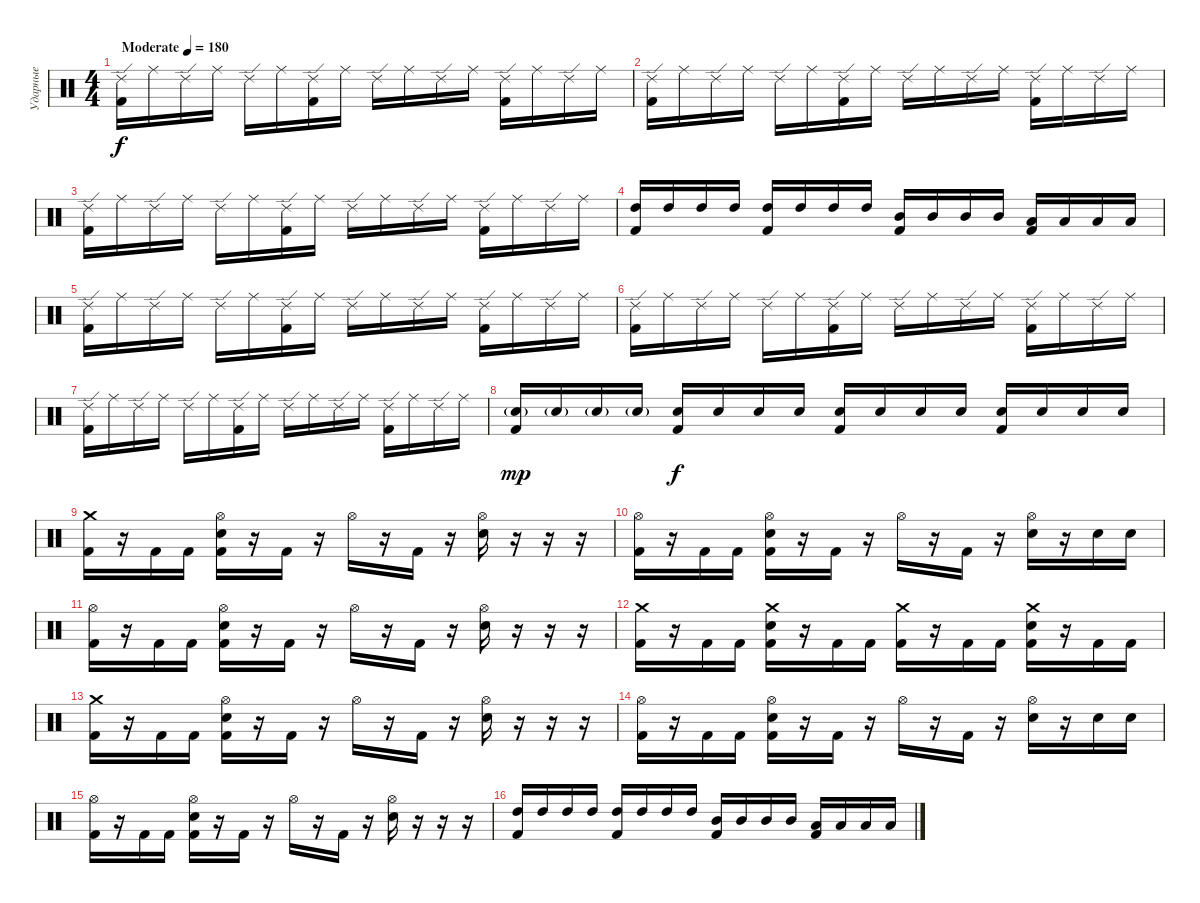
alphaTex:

\track ("Ударные" "Ударные") {instrument percussion}
\staff {score}
\articulation defaults
\ts (4 4)
\tempo (180 "Moderate")
\clef neutral
\ks c
("Ride (edge) 2" "Kick (hit) 2").16{dy f} "Ride (middle)".16 "Ride (edge) 2".16 "Ride (middle)".16 "Ride (edge) 2".16 "Ride (middle)".16 ("Ride (edge) 2" "Kick (hit) 2").16 "Ride (middle)".16 "Ride (edge) 2".16 "Ride (middle)".16 "Ride (edge) 2".16 "Ride (middle)".16 ("Ride (edge) 2" "Kick (hit) 2").16 "Ride (middle)".16 "Ride (edge) 2".16 "Ride (middle)".16 |
("Ride (edge) 2" "Kick (hit) 2").16 "Ride (middle)".16 "Ride (edge) 2".16 "Ride (middle)".16 "Ride (edge) 2".16 "Ride (middle)".16 ("Ride (edge) 2" "Kick (hit) 2").16 "Ride (middle)".16 "Ride (edge) 2".16 "Ride (middle)".16 "Ride (edge) 2".16 "Ride (middle)".16 ("Ride (edge) 2" "Kick (hit) 2").16 "Ride (middle)".16 "Ride (edge) 2".16 "Ride (middle)".16 |
("Ride (edge) 2" "Kick (hit) 2").16 "Ride (middle)".16 "Ride (edge) 2".16 "Ride (middle)".16 "Ride (edge) 2".16 "Ride (middle)".16 ("Ride (edge) 2" "Kick (hit) 2").16 "Ride (middle)".16 "Ride (edge) 2".16 "Ride (middle)".16 "Ride (edge) 2".16 "Ride (middle)".16 ("Ride (edge) 2" "Kick (hit) 2").16 "Ride (middle)".16 "Ride (edge) 2".16 "Ride (middle)".16 |
("High Tom (hit)" "Kick (hit) 2").16 "High Tom (hit)".16 "High Tom (hit)".16 "High Tom (hit)".16 ("High Tom (hit)" "Kick (hit) 2").16 "High Tom (hit)".16 "High Tom (hit)".16 "High Tom (hit)".16 ("Mid Tom (hit)" "Kick (hit) 2").16 "Mid Tom (hit)".16 "Mid Tom (hit)".16 "Mid Tom (hit)".16 ("Low Tom (hit)" "Kick (hit) 2").16 "Low Tom (hit)".16 "Low Tom (hit)".16 "Low Tom (hit)".16 |
("Ride (edge) 2" "Kick (hit) 2").16 "Ride (middle)".16 "Ride (edge) 2".16 "Ride (middle)".16 "Ride (edge) 2".16 "Ride (middle)".16 ("Ride (edge) 2" "Kick (hit) 2").16 "Ride (middle)".16 "Ride (edge) 2".16 "Ride (middle)".16 "Ride (edge) 2".16 "Ride (middle)".16 ("Ride (edge) 2" "Kick (hit) 2").16 "Ride (middle)".16 "Ride (edge) 2".16 "Ride (middle)".16 |
("Ride (edge) 2" "Kick (hit) 2").16 "Ride (middle)".16 "Ride (edge) 2".16 "Ride (middle)".16 "Ride (edge) 2".16 "Ride (middle)".16 ("Ride (edge) 2" "Kick (hit) 2").16 "Ride (middle)".16 "Ride (edge) 2".16 "Ride (middle)".16 "Ride (edge) 2".16 "Ride (middle)".16 ("Ride (edge) 2" "Kick (hit) 2").16 "Ride (middle)".16 "Ride (edge) 2".16 "Ride (middle)".16 |
("Ride (edge) 2" "Kick (hit) 2").16 "Ride (middle)".16 "Ride (edge) 2".16 "Ride (middle)".16 "Ride (edge) 2".16 "Ride (middle)".16 ("Ride (edge) 2" "Kick (hit) 2").16 "Ride (middle)".16 "Ride (edge) 2".16 "Ride (middle)".16 "Ride (edge) 2".16 "Ride (middle)".16 ("Ride (edge) 2" "Kick (hit) 2").16 "Ride (middle)".16 "Ride (edge) 2".16 "Ride (middle)".16 |
("Electric Snare (hit)"{g} "Kick (hit) 2").16{dy mp} "Electric Snare (hit)"{g}.16 "Electric Snare (hit)"{g}.16 "Electric Snare (hit)"{g}.16 ("Electric Snare (hit)" "Kick (hit) 2").16{dy f} "Electric Snare (hit)".16 "Electric Snare (hit)".16 "Electric Snare (hit)".16 ("Electric Snare (hit)" "Kick (hit) 2").16 "Electric Snare (hit)".16 "Electric Snare (hit)".16 "Electric Snare (hit)".16 ("Electric Snare (hit)" "Kick (hit) 2").16 "Electric Snare (hit)".16 "Electric Snare (hit)".16 "Electric Snare (hit)".16 |
("Crash medium (hit)" "Kick (hit) 2").16 r.16 "Kick (hit) 2".16 "Kick (hit) 2".16 ("Hi-Hat (open)" "Electric Snare (hit)" "Kick (hit) 2").16 r.16 "Kick (hit) 2".16 r.16 "Hi-Hat (open)".16 r.16 "Kick (hit) 2".16 r.16 ("Hi-Hat (open)" "Electric Snare (hit)").16 r.16 r.16 r.16 |
("Hi-Hat (open)" "Kick (hit) 2").16 r.16 "Kick (hit) 2".16 "Kick (hit) 2".16 ("Hi-Hat (open)" "Electric Snare (hit)" "Kick (hit) 2").16 r.16 "Kick (hit) 2".16 r.16 "Hi-Hat (open)".16 r.16 "Kick (hit) 2".16 r.16 ("Hi-Hat (open)" "Electric Snare (hit)").16 r.16 "Electric Snare (hit)".16 "Electric Snare (hit)".16 |
("Hi-Hat (open)" "Kick (hit) 2").16 r.16 "Kick (hit) 2".16 "Kick (hit) 2".16 ("Hi-Hat (open)" "Electric Snare (hit)" "Kick (hit) 2").16 r.16 "Kick (hit) 2".16 r.16 "Hi-Hat (open)".16 r.16 "Kick (hit) 2".16 r.16 ("Hi-Hat (open)" "Electric Snare (hit)").16 r.16 r.16 r.16 |
("Crash medium (hit)" "Kick (hit) 2").16 r.16 "Kick (hit) 2".16 "Kick (hit) 2".16 ("Crash medium (hit)" "Electric Snare (hit)" "Kick (hit) 2").16 r.16 "Kick (hit) 2".16 "Kick (hit) 2".16 ("Crash medium (hit)" "Kick (hit) 2").16 r.16 "Kick (hit) 2".16 "Kick (hit) 2".16 ("Crash medium (hit)" "Electric Snare (hit)" "Kick (hit) 2").16 r.16 "Kick (hit) 2".16 "Kick (hit) 2".16 |
("Crash medium (hit)" "Kick (hit) 2").16 r.16 "Kick (hit) 2".16 "Kick (hit) 2".16 ("Hi-Hat (open)" "Electric Snare (hit)" "Kick (hit) 2").16 r.16 "Kick (hit) 2".16 r.16 "Hi-Hat (open)".16 r.16 "Kick (hit) 2".16 r.16 ("Hi-Hat (open)" "Electric Snare (hit)").16 r.16 r.16 r.16 |
("Hi-Hat (open)" "Kick (hit) 2").16 r.16 "Kick (hit) 2".16 "Kick (hit) 2".16 ("Hi-Hat (open)" "Electric Snare (hit)" "Kick (hit) 2").16 r.16 "Kick (hit) 2".16 r.16 "Hi-Hat (open)".16 r.16 "Kick (hit) 2".16 r.16 ("Hi-Hat (open)" "Electric Snare (hit)").16 r.16 "Electric Snare (hit)".16 "Electric Snare (hit)".16 |
("Hi-Hat (open)" "Kick (hit) 2").16 r.16 "Kick (hit) 2".16 "Kick (hit) 2".16 ("Hi-Hat (open)" "Electric Snare (hit)" "Kick (hit) 2").16 r.16 "Kick (hit) 2".16 r.16 "Hi-Hat (open)".16 r.16 "Kick (hit) 2".16 r.16 ("Hi-Hat (open)" "Electric Snare (hit)").16 r.16 r.16 r.16 |
("High Tom (hit)" "Kick (hit) 2").16 "High Tom (hit)".16 "High Tom (hit)".16 "High Tom (hit)".16 ("High Tom (hit)" "Kick (hit) 2").16 "High Tom (hit)".16 "High Tom (hit)".16 "High Tom (hit)".16 ("Mid Tom (hit)" "Kick (hit) 2").16 "Mid Tom (hit)".16 "Mid Tom (hit)".16 "Mid Tom (hit)".16 ("Low Tom (hit)" "Kick (hit) 2").16 "Low Tom (hit)".16 "Low Tom (hit)".16 "Low Tom (hit)".16
